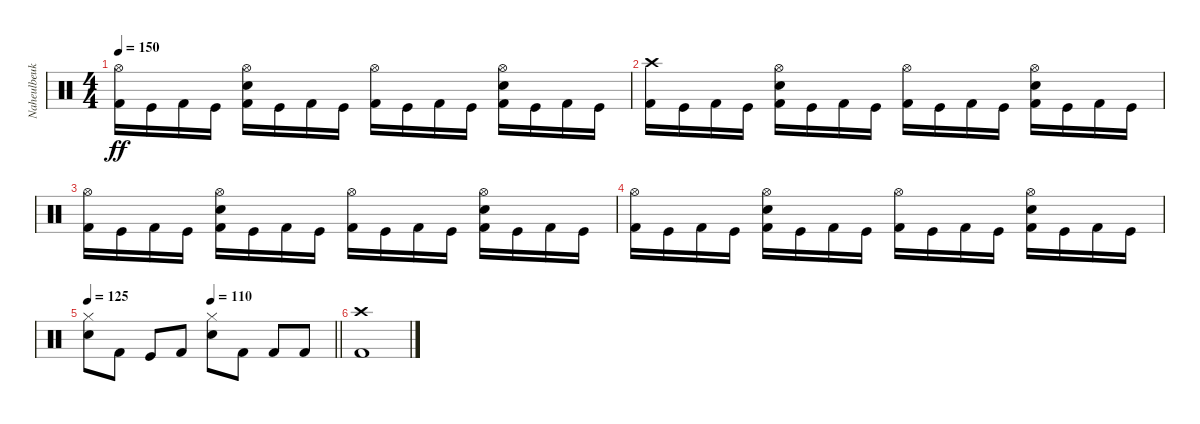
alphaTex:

\track ("Naheulbeuk" "Naheulbeuk") {instrument percussion}
\staff {score}
\articulation defaults
\ts (4 4)
\tempo 150
\clef neutral
\ks c
("Hi-Hat (open)" "Kick (hit) 2").16{dy ff} "Kick (hit)".16 "Kick (hit) 2".16 "Kick (hit)".16 ("Hi-Hat (open)" "Snare (hit) 2" "Kick (hit) 2").16 "Kick (hit)".16 "Kick (hit) 2".16 "Kick (hit)".16 ("Hi-Hat (open)" "Kick (hit) 2").16 "Kick (hit)".16 "Kick (hit) 2".16 "Kick (hit)".16 ("Hi-Hat (open)" "Snare (hit) 2" "Kick (hit) 2").16 "Kick (hit)".16 "Kick (hit) 2".16 "Kick (hit)".16 |
("Crash high (hit)" "Kick (hit) 2").16 "Kick (hit)".16 "Kick (hit) 2".16 "Kick (hit)".16 ("Hi-Hat (open)" "Snare (hit) 2" "Kick (hit) 2").16 "Kick (hit)".16 "Kick (hit) 2".16 "Kick (hit)".16 ("Hi-Hat (open)" "Kick (hit) 2").16 "Kick (hit)".16 "Kick (hit) 2".16 "Kick (hit)".16 ("Hi-Hat (open)" "Snare (hit) 2" "Kick (hit) 2").16 "Kick (hit)".16 "Kick (hit) 2".16 "Kick (hit)".16 |
("Hi-Hat (open)" "Kick (hit) 2").16 "Kick (hit)".16 "Kick (hit) 2".16 "Kick (hit)".16 ("Hi-Hat (open)" "Snare (hit) 2" "Kick (hit) 2").16 "Kick (hit)".16 "Kick (hit) 2".16 "Kick (hit)".16 ("Hi-Hat (open)" "Kick (hit) 2").16 "Kick (hit)".16 "Kick (hit) 2".16 "Kick (hit)".16 ("Hi-Hat (open)" "Snare (hit) 2" "Kick (hit) 2").16 "Kick (hit)".16 "Kick (hit) 2".16 "Kick (hit)".16 |
("Hi-Hat (open)" "Kick (hit) 2").16 "Kick (hit)".16 "Kick (hit) 2".16 "Kick (hit)".16 ("Hi-Hat (open)" "Snare (hit) 2" "Kick (hit) 2").16 "Kick (hit)".16 "Kick (hit) 2".16 "Kick (hit)".16 ("Hi-Hat (open)" "Kick (hit) 2").16 "Kick (hit)".16 "Kick (hit) 2".16 "Kick (hit)".16 ("Hi-Hat (open)" "Snare (hit) 2" "Kick (hit) 2").16 "Kick (hit)".16 "Kick (hit) 2".16 "Kick (hit)".16 |
\tempo 125
\tempo (110 0.5)
\barLineRight lightlight
("Hi-Hat (closed)" "Snare (hit) 2").8 "Kick (hit) 2".8 "Kick (hit)".8 "Kick (hit) 2".8 ("Hi-Hat (closed)" "Snare (hit) 2").8 "Kick (hit) 2".8 "Kick (hit) 2".8 "Kick (hit) 2".8 |
("Crash high (hit)" "Kick (hit) 2").1
